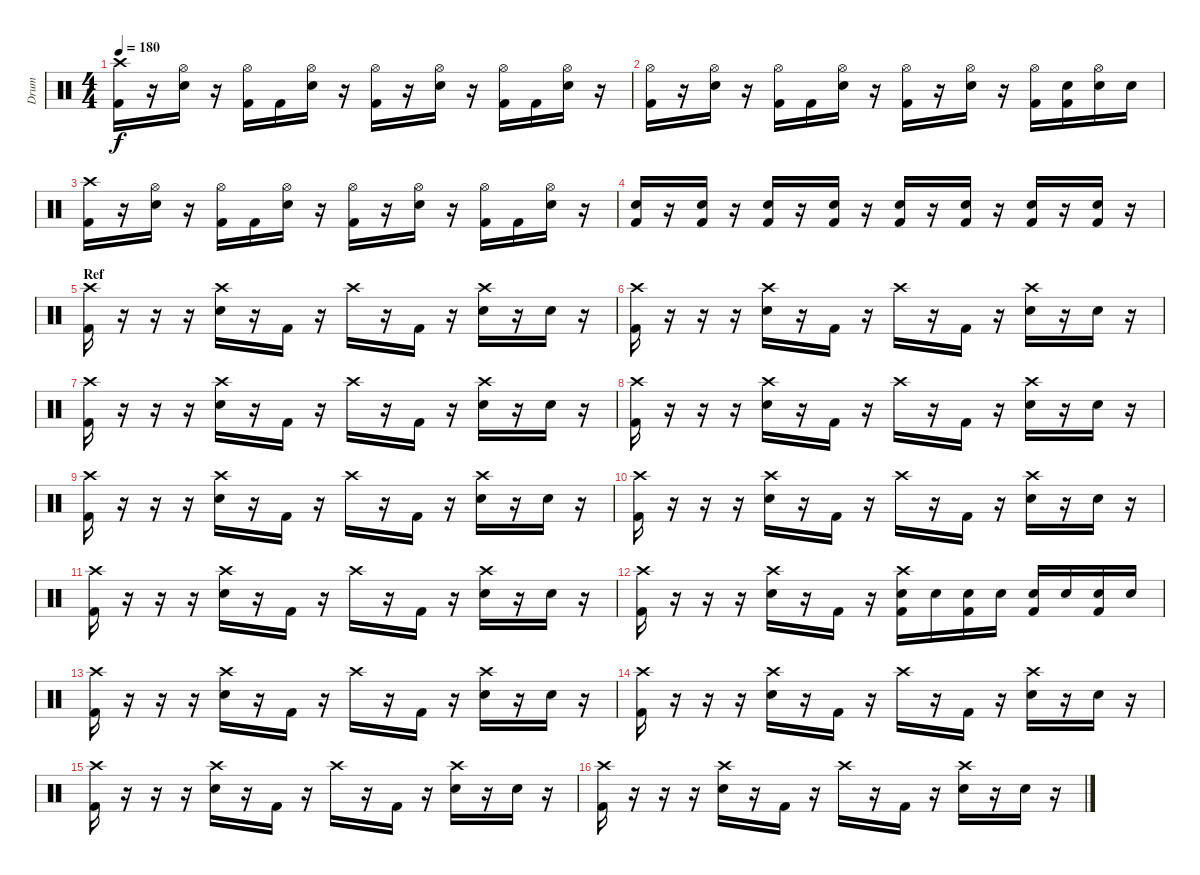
\track ("Drum" "Drum") {instrument percussion}
\staff {score}
\articulation defaults
\ts (4 4)
\tempo 180
\clef neutral
\ks c
("Crash high (hit)" "Kick (hit) 2").16{dy f} r.16 ("Hi-Hat (open)" "Electric Snare (hit)").16 r.16 ("Hi-Hat (open)" "Kick (hit) 2").16 "Kick (hit) 2".16 ("Hi-Hat (open)" "Electric Snare (hit)").16 r.16 ("Hi-Hat (open)" "Kick (hit) 2").16 r.16 ("Hi-Hat (open)" "Electric Snare (hit)").16 r.16 ("Hi-Hat (open)" "Kick (hit) 2").16 "Kick (hit) 2".16 ("Hi-Hat (open)" "Electric Snare (hit)").16 r.16 |
("Hi-Hat (open)" "Kick (hit) 2").16 r.16 ("Hi-Hat (open)" "Electric Snare (hit)").16 r.16 ("Hi-Hat (open)" "Kick (hit) 2").16 "Kick (hit) 2".16 ("Hi-Hat (open)" "Electric Snare (hit)").16 r.16 ("Hi-Hat (open)" "Kick (hit) 2").16 r.16 ("Hi-Hat (open)" "Electric Snare (hit)").16 r.16 ("Hi-Hat (open)" "Kick (hit) 2").16 ("Electric Snare (hit)" "Kick (hit) 2").16 ("Hi-Hat (open)" "Electric Snare (hit)").16 "Electric Snare (hit)".16 |
("Crash high (hit)" "Kick (hit) 2").16 r.16 ("Hi-Hat (open)" "Electric Snare (hit)").16 r.16 ("Hi-Hat (open)" "Kick (hit) 2").16 "Kick (hit) 2".16 ("Hi-Hat (open)" "Electric Snare (hit)").16 r.16 ("Hi-Hat (open)" "Kick (hit) 2").16 r.16 ("Hi-Hat (open)" "Electric Snare (hit)").16 r.16 ("Hi-Hat (open)" "Kick (hit) 2").16 "Kick (hit) 2".16 ("Hi-Hat (open)" "Electric Snare (hit)").16 r.16 |
("Electric Snare (hit)" "Kick (hit) 2").16 r.16 ("Electric Snare (hit)" "Kick (hit) 2").16 r.16 ("Electric Snare (hit)" "Kick (hit) 2").16 r.16 ("Electric Snare (hit)" "Kick (hit) 2").16 r.16 ("Electric Snare (hit)" "Kick (hit) 2").16 r.16 ("Electric Snare (hit)" "Kick (hit) 2").16 r.16 ("Electric Snare (hit)" "Kick (hit) 2").16 r.16 ("Electric Snare (hit)" "Kick (hit) 2").16 r.16 |
\section ("" "Ref")
("Crash high (hit)" "Kick (hit) 2").16 r.16 r.16 r.16 ("Crash high (hit)" "Electric Snare (hit)").16 r.16 "Kick (hit) 2".16 r.16 "Crash high (hit)".16 r.16 "Kick (hit) 2".16 r.16 ("Crash high (hit)" "Electric Snare (hit)").16 r.16 "Electric Snare (hit)".16 r.16 |
("Crash high (hit)" "Kick (hit) 2").16 r.16 r.16 r.16 ("Crash high (hit)" "Electric Snare (hit)").16 r.16 "Kick (hit) 2".16 r.16 "Crash high (hit)".16 r.16 "Kick (hit) 2".16 r.16 ("Crash high (hit)" "Electric Snare (hit)").16 r.16 "Electric Snare (hit)".16 r.16 |
("Crash high (hit)" "Kick (hit) 2").16 r.16 r.16 r.16 ("Crash high (hit)" "Electric Snare (hit)").16 r.16 "Kick (hit) 2".16 r.16 "Crash high (hit)".16 r.16 "Kick (hit) 2".16 r.16 ("Crash high (hit)" "Electric Snare (hit)").16 r.16 "Electric Snare (hit)".16 r.16 |
("Crash high (hit)" "Kick (hit) 2").16 r.16 r.16 r.16 ("Crash high (hit)" "Electric Snare (hit)").16 r.16 "Kick (hit) 2".16 r.16 "Crash high (hit)".16 r.16 "Kick (hit) 2".16 r.16 ("Crash high (hit)" "Electric Snare (hit)").16 r.16 "Electric Snare (hit)".16 r.16 |
("Crash high (hit)" "Kick (hit) 2").16 r.16 r.16 r.16 ("Crash high (hit)" "Electric Snare (hit)").16 r.16 "Kick (hit) 2".16 r.16 "Crash high (hit)".16 r.16 "Kick (hit) 2".16 r.16 ("Crash high (hit)" "Electric Snare (hit)").16 r.16 "Electric Snare (hit)".16 r.16 |
("Crash high (hit)" "Kick (hit) 2").16 r.16 r.16 r.16 ("Crash high (hit)" "Electric Snare (hit)").16 r.16 "Kick (hit) 2".16 r.16 "Crash high (hit)".16 r.16 "Kick (hit) 2".16 r.16 ("Crash high (hit)" "Electric Snare (hit)").16 r.16 "Electric Snare (hit)".16 r.16 |
("Crash high (hit)" "Kick (hit) 2").16 r.16 r.16 r.16 ("Crash high (hit)" "Electric Snare (hit)").16 r.16 "Kick (hit) 2".16 r.16 "Crash high (hit)".16 r.16 "Kick (hit) 2".16 r.16 ("Crash high (hit)" "Electric Snare (hit)").16 r.16 "Electric Snare (hit)".16 r.16 |
("Crash high (hit)" "Kick (hit) 2").16 r.16 r.16 r.16 ("Crash high (hit)" "Electric Snare (hit)").16 r.16 "Kick (hit) 2".16 r.16 ("Crash high (hit)" "Electric Snare (hit)" "Kick (hit) 2").16 "Electric Snare (hit)".16 ("Electric Snare (hit)" "Kick (hit) 2").16 "Electric Snare (hit)".16 ("Electric Snare (hit)" "Kick (hit) 2").16 "Electric Snare (hit)".16 ("Electric Snare (hit)" "Kick (hit) 2").16 "Electric Snare (hit)".16 |
("Crash high (hit)" "Kick (hit) 2").16 r.16 r.16 r.16 ("Crash high (hit)" "Electric Snare (hit)").16 r.16 "Kick (hit) 2".16 r.16 "Crash high (hit)".16 r.16 "Kick (hit) 2".16 r.16 ("Crash high (hit)" "Electric Snare (hit)").16 r.16 "Electric Snare (hit)".16 r.16 |
("Crash high (hit)" "Kick (hit) 2").16 r.16 r.16 r.16 ("Crash high (hit)" "Electric Snare (hit)").16 r.16 "Kick (hit) 2".16 r.16 "Crash high (hit)".16 r.16 "Kick (hit) 2".16 r.16 ("Crash high (hit)" "Electric Snare (hit)").16 r.16 "Electric Snare (hit)".16 r.16 |
("Crash high (hit)" "Kick (hit) 2").16 r.16 r.16 r.16 ("Crash high (hit)" "Electric Snare (hit)").16 r.16 "Kick (hit) 2".16 r.16 "Crash high (hit)".16 r.16 "Kick (hit) 2".16 r.16 ("Crash high (hit)" "Electric Snare (hit)").16 r.16 "Electric Snare (hit)".16 r.16 |
("Crash high (hit)" "Kick (hit) 2").16 r.16 r.16 r.16 ("Crash high (hit)" "Electric Snare (hit)").16 r.16 "Kick (hit) 2".16 r.16 "Crash high (hit)".16 r.16 "Kick (hit) 2".16 r.16 ("Crash high (hit)" "Electric Snare (hit)").16 r.16 "Electric Snare (hit)".16 r.16
